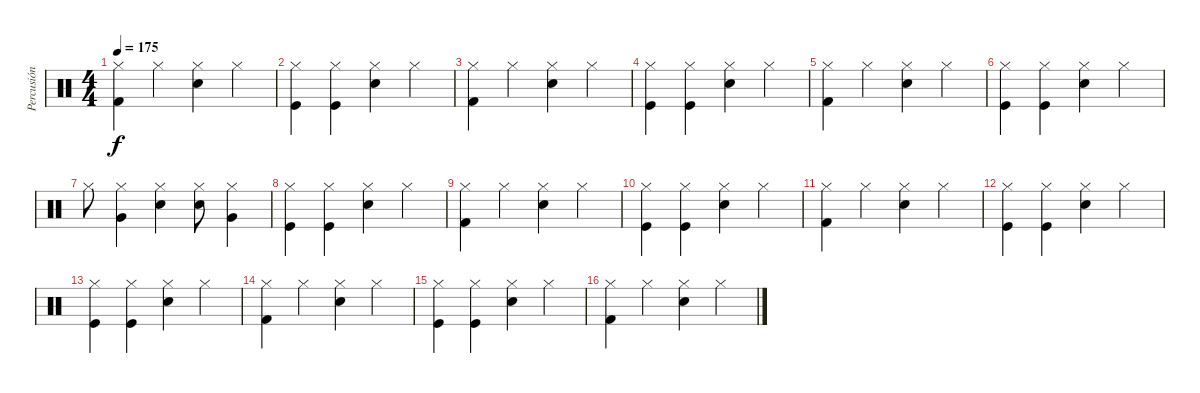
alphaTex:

\track ("Percusión" "Percusión") {instrument percussion}
\staff {score}
\articulation defaults
\ts (4 4)
\tempo 175
\clef neutral
\ks c
("Hi-Hat (closed)" "Kick (hit) 2").4{dy f} "Hi-Hat (closed)".4 ("Snare (hit) 2" "Hi-Hat (closed)").4 "Hi-Hat (closed)".4 |
("Kick (hit)" "Hi-Hat (closed)").4 ("Kick (hit)" "Hi-Hat (closed)").4 ("Snare (hit) 2" "Hi-Hat (closed)").4 "Hi-Hat (closed)".4 |
("Hi-Hat (closed)" "Kick (hit) 2").4 "Hi-Hat (closed)".4 ("Snare (hit) 2" "Hi-Hat (closed)").4 "Hi-Hat (closed)".4 |
("Kick (hit)" "Hi-Hat (closed)").4 ("Kick (hit)" "Hi-Hat (closed)").4 ("Snare (hit) 2" "Hi-Hat (closed)").4 "Hi-Hat (closed)".4 |
("Hi-Hat (closed)" "Kick (hit) 2").4 "Hi-Hat (closed)".4 ("Snare (hit) 2" "Hi-Hat (closed)").4 "Hi-Hat (closed)".4 |
("Kick (hit)" "Hi-Hat (closed)").4 ("Kick (hit)" "Hi-Hat (closed)").4 ("Snare (hit) 2" "Hi-Hat (closed)").4 "Hi-Hat (closed)".4 |
"Hi-Hat (closed)".8 ("Very Low Tom (hit)" "Hi-Hat (closed)").4 ("Electric Snare (hit)" "Hi-Hat (closed)").4 ("Electric Snare (hit)" "Hi-Hat (closed)").8 ("Very Low Tom (hit)" "Hi-Hat (closed)").4 |
("Kick (hit)" "Hi-Hat (closed)").4 ("Kick (hit)" "Hi-Hat (closed)").4 ("Electric Snare (hit)" "Hi-Hat (closed)").4 "Hi-Hat (closed)".4 |
("Hi-Hat (closed)" "Kick (hit) 2").4 "Hi-Hat (closed)".4 ("Snare (hit) 2" "Hi-Hat (closed)").4 "Hi-Hat (closed)".4 |
("Kick (hit)" "Hi-Hat (closed)").4 ("Kick (hit)" "Hi-Hat (closed)").4 ("Electric Snare (hit)" "Hi-Hat (closed)").4 "Hi-Hat (closed)".4 |
("Hi-Hat (closed)" "Kick (hit) 2").4 "Hi-Hat (closed)".4 ("Snare (hit) 2" "Hi-Hat (closed)").4 "Hi-Hat (closed)".4 |
("Kick (hit)" "Hi-Hat (closed)").4 ("Kick (hit)" "Hi-Hat (closed)").4 ("Electric Snare (hit)" "Hi-Hat (closed)").4 "Hi-Hat (closed)".4 |
("Kick (hit)" "Hi-Hat (closed)").4 ("Kick (hit)" "Hi-Hat (closed)").4 ("Electric Snare (hit)" "Hi-Hat (closed)").4 "Hi-Hat (closed)".4 |
("Hi-Hat (closed)" "Kick (hit) 2").4 "Hi-Hat (closed)".4 ("Snare (hit) 2" "Hi-Hat (closed)").4 "Hi-Hat (closed)".4 |
("Kick (hit)" "Hi-Hat (closed)").4 ("Kick (hit)" "Hi-Hat (closed)").4 ("Electric Snare (hit)" "Hi-Hat (closed)").4 "Hi-Hat (closed)".4 |
("Hi-Hat (closed)" "Kick (hit) 2").4 "Hi-Hat (closed)".4 ("Snare (hit) 2" "Hi-Hat (closed)").4 "Hi-Hat (closed)".4
